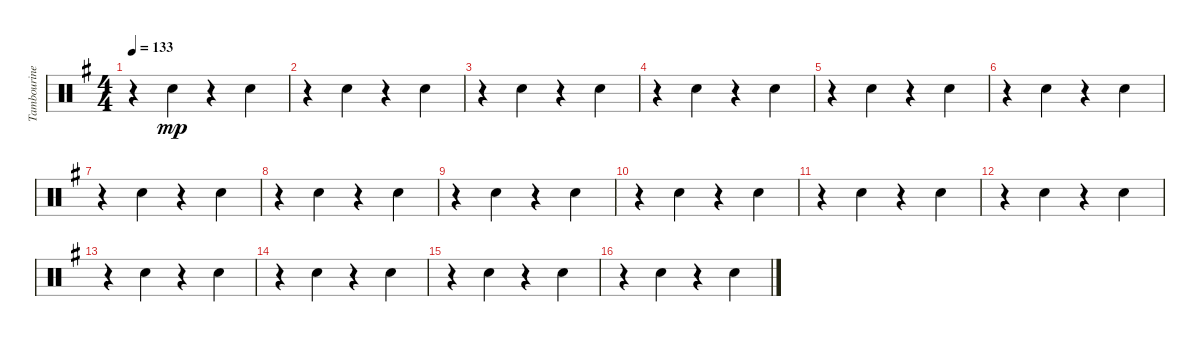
\track ("Tambourine/Claps" "Tambourine") {instrument percussion}
\staff {score}
\articulation defaults
\ts (4 4)
\tempo 133
\clef neutral
\ks g
r.4{dy mp} "Hand Clap (hit)".4 r.4 "Hand Clap (hit)".4 |
r.4 "Hand Clap (hit)".4 r.4 "Hand Clap (hit)".4 |
r.4 "Hand Clap (hit)".4 r.4 "Hand Clap (hit)".4 |
r.4 "Hand Clap (hit)".4 r.4 "Hand Clap (hit)".4 |
r.4 "Hand Clap (hit)".4 r.4 "Hand Clap (hit)".4 |
r.4 "Hand Clap (hit)".4 r.4 "Hand Clap (hit)".4 |
r.4 "Hand Clap (hit)".4 r.4 "Hand Clap (hit)".4 |
r.4 "Hand Clap (hit)".4 r.4 "Hand Clap (hit)".4 |
r.4 "Hand Clap (hit)".4 r.4 "Hand Clap (hit)".4 |
r.4 "Hand Clap (hit)".4 r.4 "Hand Clap (hit)".4 |
r.4 "Hand Clap (hit)".4 r.4 "Hand Clap (hit)".4 |
r.4 "Hand Clap (hit)".4 r.4 "Hand Clap (hit)".4 |
r.4 "Hand Clap (hit)".4 r.4 "Hand Clap (hit)".4 |
r.4 "Hand Clap (hit)".4 r.4 "Hand Clap (hit)".4 |
r.4 "Hand Clap (hit)".4 r.4 "Hand Clap (hit)".4 |
r.4 "Hand Clap (hit)".4 r.4 "Hand Clap (hit)".4
